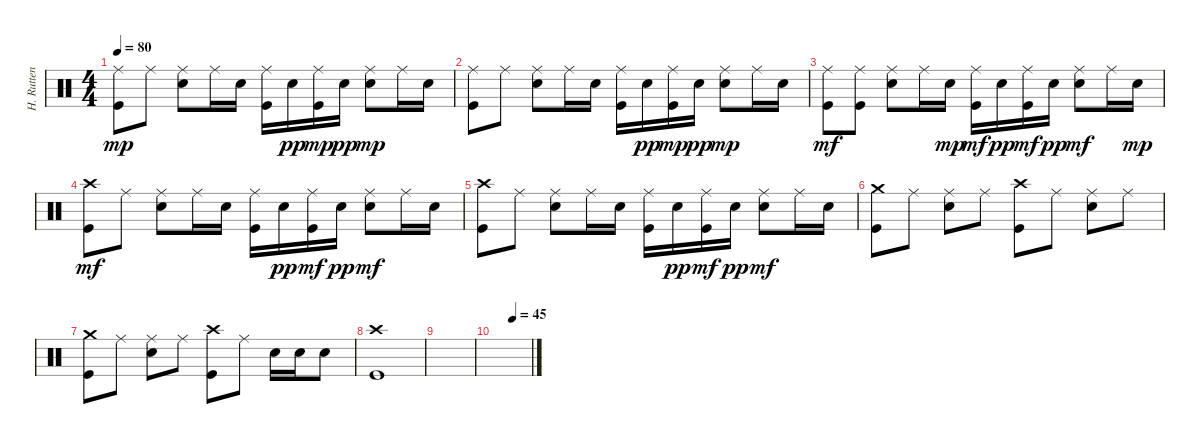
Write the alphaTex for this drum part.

\track ("H. Rutten" "H. Rutten") {instrument percussion}
\staff {score}
\articulation defaults
\ts (4 4)
\tempo 80
\clef neutral
\ks c
("Kick (hit)" "Ride (middle)").8{dy mp} "Ride (middle)".8 ("Electric Snare (hit)" "Ride (middle)").8 "Ride (middle)".16 "Electric Snare (hit)".16 ("Kick (hit)" "Ride (middle)").16 "Electric Snare (hit)".16{dy pp} ("Kick (hit)" "Ride (middle)").16{dy mp} "Electric Snare (hit)".16{dy pp} ("Electric Snare (hit)" "Ride (middle)").8{dy mp} "Ride (middle)".16 "Electric Snare (hit)".16 |
("Kick (hit)" "Ride (middle)").8 "Ride (middle)".8 ("Electric Snare (hit)" "Ride (middle)").8 "Ride (middle)".16 "Electric Snare (hit)".16 ("Kick (hit)" "Ride (middle)").16 "Electric Snare (hit)".16{dy pp} ("Kick (hit)" "Ride (middle)").16{dy mp} "Electric Snare (hit)".16{dy pp} ("Electric Snare (hit)" "Ride (middle)").8{dy mp} "Ride (middle)".16 "Electric Snare (hit)".16 |
("Kick (hit)" "Ride (middle)").8{dy mf} ("Kick (hit)" "Ride (middle)").8 ("Electric Snare (hit)" "Ride (middle)").8 "Ride (middle)".16 "Electric Snare (hit)".16{dy mp} ("Kick (hit)" "Ride (middle)").16{dy mf} "Electric Snare (hit)".16{dy pp} ("Kick (hit)" "Ride (middle)").16{dy mf} "Electric Snare (hit)".16{dy pp} ("Electric Snare (hit)" "Ride (middle)").8{dy mf} "Ride (middle)".16 "Electric Snare (hit)".16{dy mp} |
("Kick (hit)" "Crash high (hit)").8{dy mf} "Ride (middle)".8 ("Electric Snare (hit)" "Ride (middle)").8 "Ride (middle)".16 "Electric Snare (hit)".16 ("Kick (hit)" "Ride (middle)").16 "Electric Snare (hit)".16{dy pp} ("Kick (hit)" "Ride (middle)").16{dy mf} "Electric Snare (hit)".16{dy pp} ("Electric Snare (hit)" "Ride (middle)").8{dy mf} "Ride (middle)".16 "Electric Snare (hit)".16 |
("Kick (hit)" "Crash high (hit)").8 "Ride (middle)".8 ("Electric Snare (hit)" "Ride (middle)").8 "Ride (middle)".16 "Electric Snare (hit)".16 ("Kick (hit)" "Ride (middle)").16 "Electric Snare (hit)".16{dy pp} ("Kick (hit)" "Ride (middle)").16{dy mf} "Electric Snare (hit)".16{dy pp} ("Electric Snare (hit)" "Ride (middle)").8{dy mf} "Ride (middle)".16 "Electric Snare (hit)".16 |
("Kick (hit)" "Crash medium (hit)").8 "Ride (middle)".8 ("Electric Snare (hit)" "Ride (middle)").8 "Ride (middle)".8 ("Kick (hit)" "Crash high (hit)").8 "Ride (middle)".8 ("Electric Snare (hit)" "Ride (middle)").8 "Ride (middle)".8 |
("Kick (hit)" "Crash medium (hit)").8 "Ride (middle)".8 ("Electric Snare (hit)" "Ride (middle)").8 "Ride (middle)".8 ("Kick (hit)" "Crash high (hit)").8 "Ride (middle)".8 "Electric Snare (hit)".16 "Electric Snare (hit)".16 "Electric Snare (hit)".8 |
("Kick (hit)" "Crash high (hit)").1 |
|
\tempo (45 0.5)
